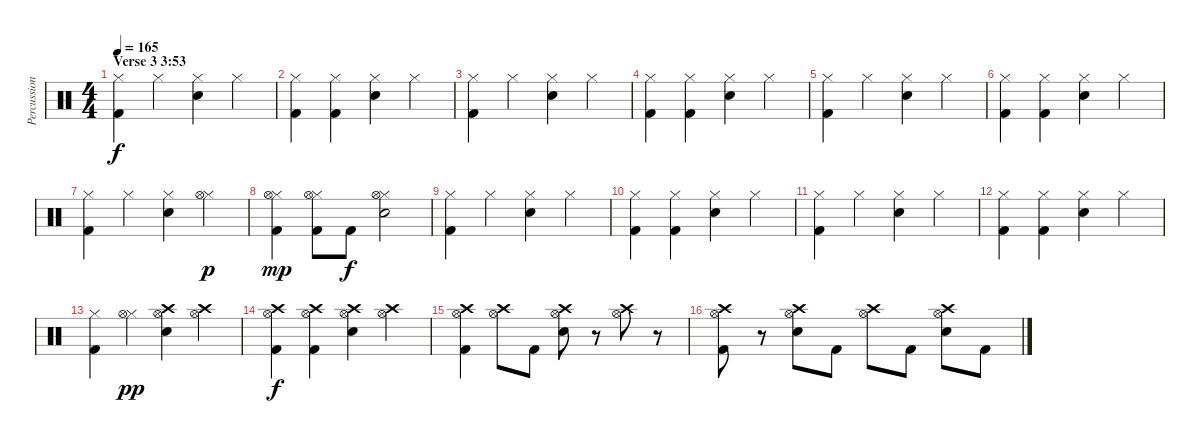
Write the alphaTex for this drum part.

\track ("Percussion" "Percussion") {instrument percussion}
\staff {score}
\articulation defaults
\ts (4 4)
\section ("" "Verse 3 3:53")
\tempo 165
\clef neutral
\ks c
("Hi-Hat (closed)" "Kick (hit) 2").4{dy f} "Hi-Hat (closed)".4 ("Hi-Hat (closed)" "Electric Snare (hit)").4 "Hi-Hat (closed)".4 |
("Hi-Hat (closed)" "Kick (hit) 2").4 ("Hi-Hat (closed)" "Kick (hit) 2").4 ("Hi-Hat (closed)" "Electric Snare (hit)").4 "Hi-Hat (closed)".4 |
("Hi-Hat (closed)" "Kick (hit) 2").4 "Hi-Hat (closed)".4 ("Hi-Hat (closed)" "Electric Snare (hit)").4 "Hi-Hat (closed)".4 |
("Hi-Hat (closed)" "Kick (hit) 2").4 ("Hi-Hat (closed)" "Kick (hit) 2").4 ("Hi-Hat (closed)" "Electric Snare (hit)").4 "Hi-Hat (closed)".4 |
("Hi-Hat (closed)" "Kick (hit) 2").4 "Hi-Hat (closed)".4 ("Hi-Hat (closed)" "Electric Snare (hit)").4 "Hi-Hat (closed)".4 |
("Hi-Hat (closed)" "Kick (hit) 2").4 ("Hi-Hat (closed)" "Kick (hit) 2").4 ("Hi-Hat (closed)" "Electric Snare (hit)").4 "Hi-Hat (closed)".4 |
("Hi-Hat (closed)" "Kick (hit) 2").4 "Hi-Hat (closed)".4 ("Hi-Hat (closed)" "Electric Snare (hit)").4 ("Hi-Hat (closed)" "Hi-Hat (open)").4{dy p} |
("Hi-Hat (closed)" "Hi-Hat (open)" "Kick (hit) 2").4{dy mp} ("Hi-Hat (closed)" "Hi-Hat (open)" "Kick (hit) 2").8 "Kick (hit) 2".8{dy f} ("Hi-Hat (closed)" "Hi-Hat (open)" "Electric Snare (hit)").2 |
("Hi-Hat (closed)" "Kick (hit) 2").4 "Hi-Hat (closed)".4 ("Hi-Hat (closed)" "Electric Snare (hit)").4 "Hi-Hat (closed)".4 |
("Hi-Hat (closed)" "Kick (hit) 2").4 ("Hi-Hat (closed)" "Kick (hit) 2").4 ("Hi-Hat (closed)" "Electric Snare (hit)").4 "Hi-Hat (closed)".4 |
("Hi-Hat (closed)" "Kick (hit) 2").4 "Hi-Hat (closed)".4 ("Hi-Hat (closed)" "Electric Snare (hit)").4 "Hi-Hat (closed)".4 |
("Hi-Hat (closed)" "Kick (hit) 2").4 ("Hi-Hat (closed)" "Kick (hit) 2").4 ("Hi-Hat (closed)" "Electric Snare (hit)").4 "Hi-Hat (closed)".4 |
("Hi-Hat (closed)" "Kick (hit) 2").4 ("Hi-Hat (closed)" "Hi-Hat (open)").4{dy pp} ("Hi-Hat (open)" "Crash high (hit)" "Electric Snare (hit)").4 ("Hi-Hat (open)" "Crash high (hit)").4 |
("Hi-Hat (open)" "Crash high (hit)" "Kick (hit) 2").4{dy f} ("Hi-Hat (open)" "Crash high (hit)" "Kick (hit) 2").4 ("Hi-Hat (open)" "Crash high (hit)" "Electric Snare (hit)").4 ("Hi-Hat (open)" "Crash high (hit)").4 |
("Hi-Hat (open)" "Crash high (hit)" "Kick (hit) 2").4 ("Hi-Hat (open)" "Crash high (hit)").8 "Kick (hit) 2".8 ("Hi-Hat (open)" "Crash high (hit)" "Electric Snare (hit)").8 r.8 ("Hi-Hat (open)" "Crash high (hit)").8 r.8 |
("Hi-Hat (open)" "Crash high (hit)" "Kick (hit) 2").8 r.8 ("Hi-Hat (open)" "Crash high (hit)" "Electric Snare (hit)").8 "Kick (hit) 2".8 ("Hi-Hat (open)" "Crash high (hit)").8 "Kick (hit) 2".8 ("Hi-Hat (open)" "Crash high (hit)" "Electric Snare (hit)").8 "Kick (hit) 2".8
